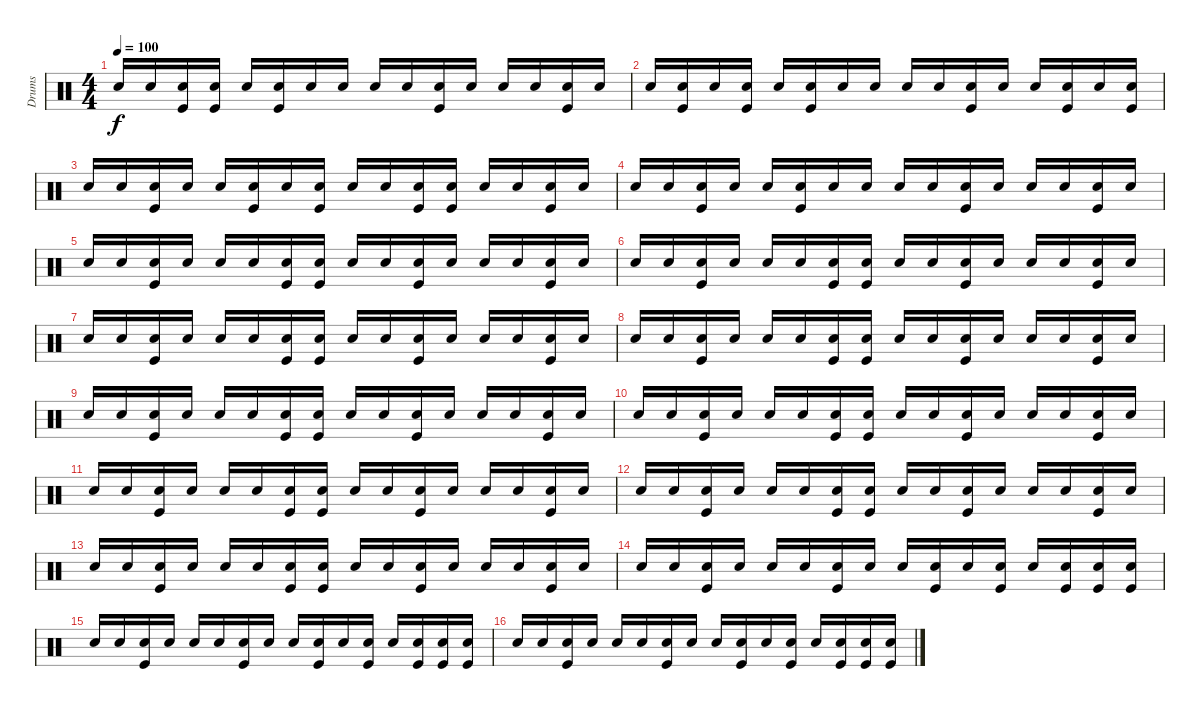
\track ("Drums" "Drums") {instrument percussion}
\staff {score}
\articulation defaults
\ts (4 4)
\tempo 100
\clef neutral
\ks c "Snare (hit) 2".16{dy f} "Snare (hit) 2".16
("Snare (hit) 2" "Kick (hit)").16 ("Snare (hit) 2" "Kick (hit)").16 "Snare (hit) 2".16 ("Snare (hit) 2" "Kick (hit)").16 "Snare (hit) 2".16 "Snare (hit) 2".16 "Snare (hit) 2".16 "Snare (hit) 2".16 ("Snare (hit) 2" "Kick (hit)").16 "Snare (hit) 2".16 "Snare (hit) 2".16 "Snare (hit) 2".16 ("Snare (hit) 2" "Kick (hit)").16 "Snare (hit) 2".16 |
"Snare (hit) 2".16 ("Snare (hit) 2" "Kick (hit)").16 "Snare (hit) 2".16 ("Snare (hit) 2" "Kick (hit)").16 "Snare (hit) 2".16 ("Snare (hit) 2" "Kick (hit)").16 "Snare (hit) 2".16 "Snare (hit) 2".16 "Snare (hit) 2".16 "Snare (hit) 2".16 ("Snare (hit) 2" "Kick (hit)").16 "Snare (hit) 2".16 "Snare (hit) 2".16 ("Snare (hit) 2" "Kick (hit)").16 "Snare (hit) 2".16 ("Snare (hit) 2" "Kick (hit)").16 |
"Snare (hit) 2".16 "Snare (hit) 2".16 ("Snare (hit) 2" "Kick (hit)").16 "Snare (hit) 2".16 "Snare (hit) 2".16 ("Snare (hit) 2" "Kick (hit)").16 "Snare (hit) 2".16 ("Snare (hit) 2" "Kick (hit)").16 "Snare (hit) 2".16 "Snare (hit) 2".16 ("Snare (hit) 2" "Kick (hit)").16 ("Snare (hit) 2" "Kick (hit)").16 "Snare (hit) 2".16 "Snare (hit) 2".16 ("Snare (hit) 2" "Kick (hit)").16 "Snare (hit) 2".16 |
"Snare (hit) 2".16 "Snare (hit) 2".16 ("Snare (hit) 2" "Kick (hit)").16 "Snare (hit) 2".16 "Snare (hit) 2".16 ("Snare (hit) 2" "Kick (hit)").16 "Snare (hit) 2".16 "Snare (hit) 2".16 "Snare (hit) 2".16 "Snare (hit) 2".16 ("Snare (hit) 2" "Kick (hit)").16 "Snare (hit) 2".16 "Snare (hit) 2".16 "Snare (hit) 2".16 ("Snare (hit) 2" "Kick (hit)").16 "Snare (hit) 2".16 |
"Snare (hit) 2".16 "Snare (hit) 2".16 ("Snare (hit) 2" "Kick (hit)").16 "Snare (hit) 2".16 "Snare (hit) 2".16 "Snare (hit) 2".16 ("Snare (hit) 2" "Kick (hit)").16 ("Snare (hit) 2" "Kick (hit)").16 "Snare (hit) 2".16 "Snare (hit) 2".16 ("Snare (hit) 2" "Kick (hit)").16 "Snare (hit) 2".16 "Snare (hit) 2".16 "Snare (hit) 2".16 ("Snare (hit) 2" "Kick (hit)").16 "Snare (hit) 2".16 |
"Snare (hit) 2".16 "Snare (hit) 2".16 ("Snare (hit) 2" "Kick (hit)").16 "Snare (hit) 2".16 "Snare (hit) 2".16 "Snare (hit) 2".16 ("Snare (hit) 2" "Kick (hit)").16 ("Snare (hit) 2" "Kick (hit)").16 "Snare (hit) 2".16 "Snare (hit) 2".16 ("Snare (hit) 2" "Kick (hit)").16 "Snare (hit) 2".16 "Snare (hit) 2".16 "Snare (hit) 2".16 ("Snare (hit) 2" "Kick (hit)").16 "Snare (hit) 2".16 |
"Snare (hit) 2".16 "Snare (hit) 2".16 ("Snare (hit) 2" "Kick (hit)").16 "Snare (hit) 2".16 "Snare (hit) 2".16 "Snare (hit) 2".16 ("Snare (hit) 2" "Kick (hit)").16 ("Snare (hit) 2" "Kick (hit)").16 "Snare (hit) 2".16 "Snare (hit) 2".16 ("Snare (hit) 2" "Kick (hit)").16 "Snare (hit) 2".16 "Snare (hit) 2".16 "Snare (hit) 2".16 ("Snare (hit) 2" "Kick (hit)").16 "Snare (hit) 2".16 |
"Snare (hit) 2".16 "Snare (hit) 2".16 ("Snare (hit) 2" "Kick (hit)").16 "Snare (hit) 2".16 "Snare (hit) 2".16 "Snare (hit) 2".16 ("Snare (hit) 2" "Kick (hit)").16 ("Snare (hit) 2" "Kick (hit)").16 "Snare (hit) 2".16 "Snare (hit) 2".16 ("Snare (hit) 2" "Kick (hit)").16 "Snare (hit) 2".16 "Snare (hit) 2".16 "Snare (hit) 2".16 ("Snare (hit) 2" "Kick (hit)").16 "Snare (hit) 2".16 |
"Snare (hit) 2".16 "Snare (hit) 2".16 ("Snare (hit) 2" "Kick (hit)").16 "Snare (hit) 2".16 "Snare (hit) 2".16 "Snare (hit) 2".16 ("Snare (hit) 2" "Kick (hit)").16 ("Snare (hit) 2" "Kick (hit)").16 "Snare (hit) 2".16 "Snare (hit) 2".16 ("Snare (hit) 2" "Kick (hit)").16 "Snare (hit) 2".16 "Snare (hit) 2".16 "Snare (hit) 2".16 ("Snare (hit) 2" "Kick (hit)").16 "Snare (hit) 2".16 |
"Snare (hit) 2".16 "Snare (hit) 2".16 ("Snare (hit) 2" "Kick (hit)").16 "Snare (hit) 2".16 "Snare (hit) 2".16 "Snare (hit) 2".16 ("Snare (hit) 2" "Kick (hit)").16 ("Snare (hit) 2" "Kick (hit)").16 "Snare (hit) 2".16 "Snare (hit) 2".16 ("Snare (hit) 2" "Kick (hit)").16 "Snare (hit) 2".16 "Snare (hit) 2".16 "Snare (hit) 2".16 ("Snare (hit) 2" "Kick (hit)").16 "Snare (hit) 2".16 |
"Snare (hit) 2".16 "Snare (hit) 2".16 ("Snare (hit) 2" "Kick (hit)").16 "Snare (hit) 2".16 "Snare (hit) 2".16 "Snare (hit) 2".16 ("Snare (hit) 2" "Kick (hit)").16 ("Snare (hit) 2" "Kick (hit)").16 "Snare (hit) 2".16 "Snare (hit) 2".16 ("Snare (hit) 2" "Kick (hit)").16 "Snare (hit) 2".16 "Snare (hit) 2".16 "Snare (hit) 2".16 ("Snare (hit) 2" "Kick (hit)").16 "Snare (hit) 2".16 |
"Snare (hit) 2".16 "Snare (hit) 2".16 ("Snare (hit) 2" "Kick (hit)").16 "Snare (hit) 2".16 "Snare (hit) 2".16 "Snare (hit) 2".16 ("Snare (hit) 2" "Kick (hit)").16 ("Snare (hit) 2" "Kick (hit)").16 "Snare (hit) 2".16 "Snare (hit) 2".16 ("Snare (hit) 2" "Kick (hit)").16 "Snare (hit) 2".16 "Snare (hit) 2".16 "Snare (hit) 2".16 ("Snare (hit) 2" "Kick (hit)").16 "Snare (hit) 2".16 |
"Snare (hit) 2".16 "Snare (hit) 2".16 ("Snare (hit) 2" "Kick (hit)").16 "Snare (hit) 2".16 "Snare (hit) 2".16 "Snare (hit) 2".16 ("Snare (hit) 2" "Kick (hit)").16 ("Snare (hit) 2" "Kick (hit)").16 "Snare (hit) 2".16 "Snare (hit) 2".16 ("Snare (hit) 2" "Kick (hit)").16 "Snare (hit) 2".16 "Snare (hit) 2".16 "Snare (hit) 2".16 ("Snare (hit) 2" "Kick (hit)").16 "Snare (hit) 2".16 |
"Snare (hit) 2".16 "Snare (hit) 2".16 ("Snare (hit) 2" "Kick (hit)").16 "Snare (hit) 2".16 "Snare (hit) 2".16 "Snare (hit) 2".16 ("Snare (hit) 2" "Kick (hit)").16 "Snare (hit) 2".16 "Snare (hit) 2".16 ("Snare (hit) 2" "Kick (hit)").16 "Snare (hit) 2".16 ("Snare (hit) 2" "Kick (hit)").16 "Snare (hit) 2".16 ("Snare (hit) 2" "Kick (hit)").16 ("Snare (hit) 2" "Kick (hit)").16 ("Snare (hit) 2" "Kick (hit)").16 |
"Snare (hit) 2".16 "Snare (hit) 2".16 ("Snare (hit) 2" "Kick (hit)").16 "Snare (hit) 2".16 "Snare (hit) 2".16 "Snare (hit) 2".16 ("Snare (hit) 2" "Kick (hit)").16 "Snare (hit) 2".16 "Snare (hit) 2".16 ("Snare (hit) 2" "Kick (hit)").16 "Snare (hit) 2".16 ("Snare (hit) 2" "Kick (hit)").16 "Snare (hit) 2".16 ("Snare (hit) 2" "Kick (hit)").16 ("Snare (hit) 2" "Kick (hit)").16 ("Snare (hit) 2" "Kick (hit)").16 |
"Snare (hit) 2".16 "Snare (hit) 2".16 ("Snare (hit) 2" "Kick (hit)").16 "Snare (hit) 2".16 "Snare (hit) 2".16 "Snare (hit) 2".16 ("Snare (hit) 2" "Kick (hit)").16 "Snare (hit) 2".16 "Snare (hit) 2".16 ("Snare (hit) 2" "Kick (hit)").16 "Snare (hit) 2".16 ("Snare (hit) 2" "Kick (hit)").16 "Snare (hit) 2".16 ("Snare (hit) 2" "Kick (hit)").16 ("Snare (hit) 2" "Kick (hit)").16 ("Snare (hit) 2" "Kick (hit)").16
